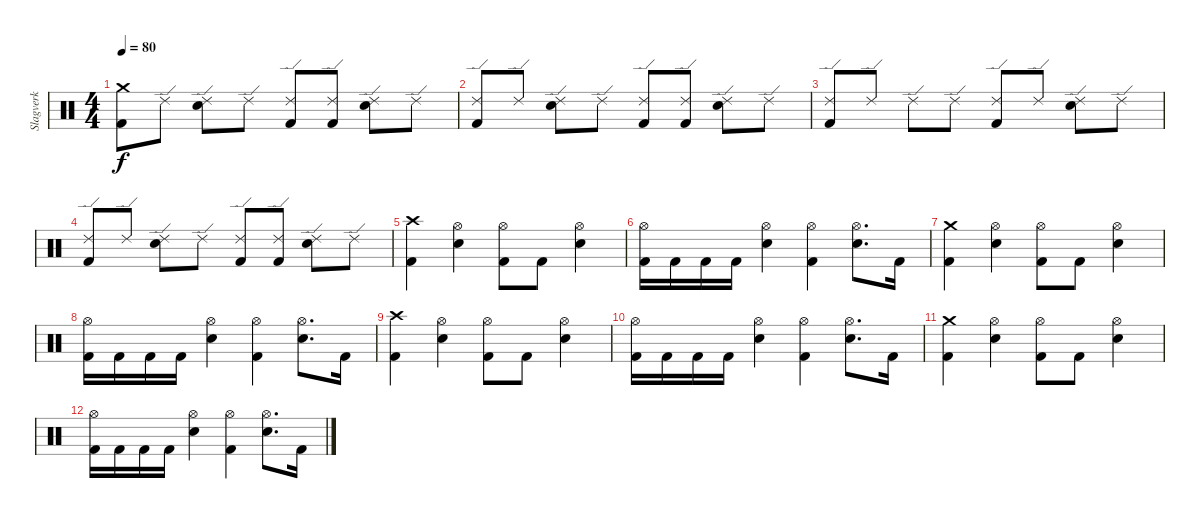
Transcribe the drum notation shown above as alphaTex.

\track ("Slagverk" "Slagverk") {instrument percussion}
\staff {score}
\articulation defaults
\ts (4 4)
\tempo 80
\clef neutral
\ks c
("Crash medium (hit)" "Kick (hit) 2").8{dy f} "Ride (edge) 2".8 ("Ride (edge) 2" "Snare (hit) 2").8 "Ride (edge) 2".8 ("Ride (edge) 2" "Kick (hit) 2").8 ("Ride (edge) 2" "Kick (hit) 2").8 ("Ride (edge) 2" "Snare (hit) 2").8 "Ride (edge) 2".8 |
("Ride (edge) 2" "Kick (hit) 2").8 "Ride (edge) 2".8 ("Ride (edge) 2" "Snare (hit) 2").8 "Ride (edge) 2".8 ("Ride (edge) 2" "Kick (hit) 2").8 ("Ride (edge) 2" "Kick (hit) 2").8 ("Ride (edge) 2" "Snare (hit) 2").8 "Ride (edge) 2".8 |
("Ride (edge) 2" "Kick (hit) 2").8 "Ride (edge) 2".8 "Ride (edge) 2".8 "Ride (edge) 2".8 ("Ride (edge) 2" "Kick (hit) 2").8 "Ride (edge) 2".8 ("Ride (edge) 2" "Snare (hit) 2").8 "Ride (edge) 2".8 |
("Ride (edge) 2" "Kick (hit) 2").8 "Ride (edge) 2".8 ("Ride (edge) 2" "Snare (hit) 2").8 "Ride (edge) 2".8 ("Ride (edge) 2" "Kick (hit) 2").8 ("Ride (edge) 2" "Kick (hit) 2").8 ("Ride (edge) 2" "Snare (hit) 2").8 "Ride (edge) 2".8 |
("Crash high (hit)" "Kick (hit) 2").4 ("Hi-Hat (open)" "Snare (hit) 2").4 ("Hi-Hat (open)" "Kick (hit) 2").8 "Kick (hit) 2".8 ("Hi-Hat (open)" "Snare (hit) 2").4 |
("Hi-Hat (open)" "Kick (hit) 2").16 "Kick (hit) 2".16 "Kick (hit) 2".16 "Kick (hit) 2".16 ("Hi-Hat (open)" "Snare (hit) 2").4 ("Hi-Hat (open)" "Kick (hit) 2").4 ("Hi-Hat (open)" "Snare (hit) 2").8{d} "Kick (hit) 2".16 |
("Crash medium (hit)" "Kick (hit) 2").4 ("Hi-Hat (open)" "Snare (hit) 2").4 ("Hi-Hat (open)" "Kick (hit) 2").8 "Kick (hit) 2".8 ("Hi-Hat (open)" "Snare (hit) 2").4 |
("Hi-Hat (open)" "Kick (hit) 2").16 "Kick (hit) 2".16 "Kick (hit) 2".16 "Kick (hit) 2".16 ("Hi-Hat (open)" "Snare (hit) 2").4 ("Hi-Hat (open)" "Kick (hit) 2").4 ("Hi-Hat (open)" "Snare (hit) 2").8{d} "Kick (hit) 2".16 |
("Crash high (hit)" "Kick (hit) 2").4 ("Hi-Hat (open)" "Snare (hit) 2").4 ("Hi-Hat (open)" "Kick (hit) 2").8 "Kick (hit) 2".8 ("Hi-Hat (open)" "Snare (hit) 2").4 |
("Hi-Hat (open)" "Kick (hit) 2").16 "Kick (hit) 2".16 "Kick (hit) 2".16 "Kick (hit) 2".16 ("Hi-Hat (open)" "Snare (hit) 2").4 ("Hi-Hat (open)" "Kick (hit) 2").4 ("Hi-Hat (open)" "Snare (hit) 2").8{d} "Kick (hit) 2".16 |
("Crash medium (hit)" "Kick (hit) 2").4 ("Hi-Hat (open)" "Snare (hit) 2").4 ("Hi-Hat (open)" "Kick (hit) 2").8 "Kick (hit) 2".8 ("Hi-Hat (open)" "Snare (hit) 2").4 |
("Hi-Hat (open)" "Kick (hit) 2").16 "Kick (hit) 2".16 "Kick (hit) 2".16 "Kick (hit) 2".16 ("Hi-Hat (open)" "Snare (hit) 2").4 ("Hi-Hat (open)" "Kick (hit) 2").4 ("Hi-Hat (open)" "Snare (hit) 2").8{d} "Kick (hit) 2".16
